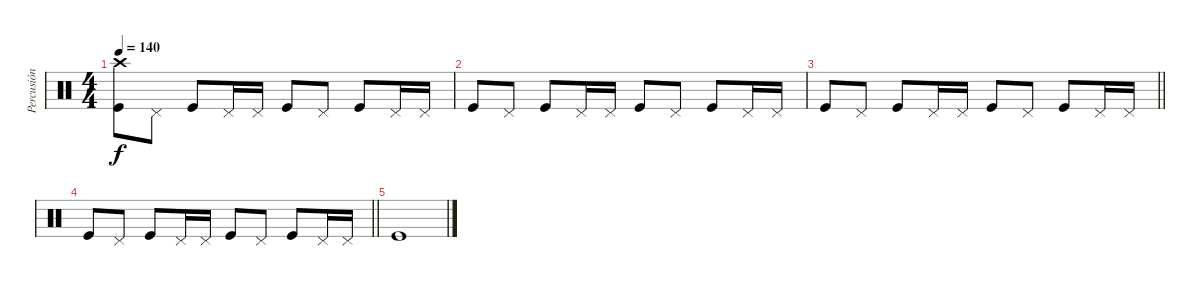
\track ("Percusión" "Percusión") {instrument percussion}
\staff {score}
\articulation defaults
\ts (4 4)
\tempo 140
\clef neutral
\ks c
("Crash high (hit)" "Kick (hit)").8{dy f} "Pedal Hi-Hat (hit)".8 "Kick (hit)".8 "Pedal Hi-Hat (hit)".16 "Pedal Hi-Hat (hit)".16 "Kick (hit)".8 "Pedal Hi-Hat (hit)".8 "Kick (hit)".8 "Pedal Hi-Hat (hit)".16 "Pedal Hi-Hat (hit)".16 |
"Kick (hit)".8 "Pedal Hi-Hat (hit)".8 "Kick (hit)".8 "Pedal Hi-Hat (hit)".16 "Pedal Hi-Hat (hit)".16 "Kick (hit)".8 "Pedal Hi-Hat (hit)".8 "Kick (hit)".8 "Pedal Hi-Hat (hit)".16 "Pedal Hi-Hat (hit)".16 |
\barLineRight lightlight "Kick (hit)".8 "Pedal Hi-Hat (hit)".8 "Kick (hit)".8 "Pedal Hi-Hat (hit)".16 "Pedal Hi-Hat (hit)".16 "Kick (hit)".8 "Pedal Hi-Hat (hit)".8 "Kick (hit)".8 "Pedal Hi-Hat (hit)".16 "Pedal Hi-Hat (hit)".16
|
\barLineRight lightlight "Kick (hit)".8 "Pedal Hi-Hat (hit)".8 "Kick (hit)".8 "Pedal Hi-Hat (hit)".16 "Pedal Hi-Hat (hit)".16 "Kick (hit)".8 "Pedal Hi-Hat (hit)".8 "Kick (hit)".8 "Pedal Hi-Hat (hit)".16 "Pedal Hi-Hat (hit)".16
|
"Kick (hit)".1
